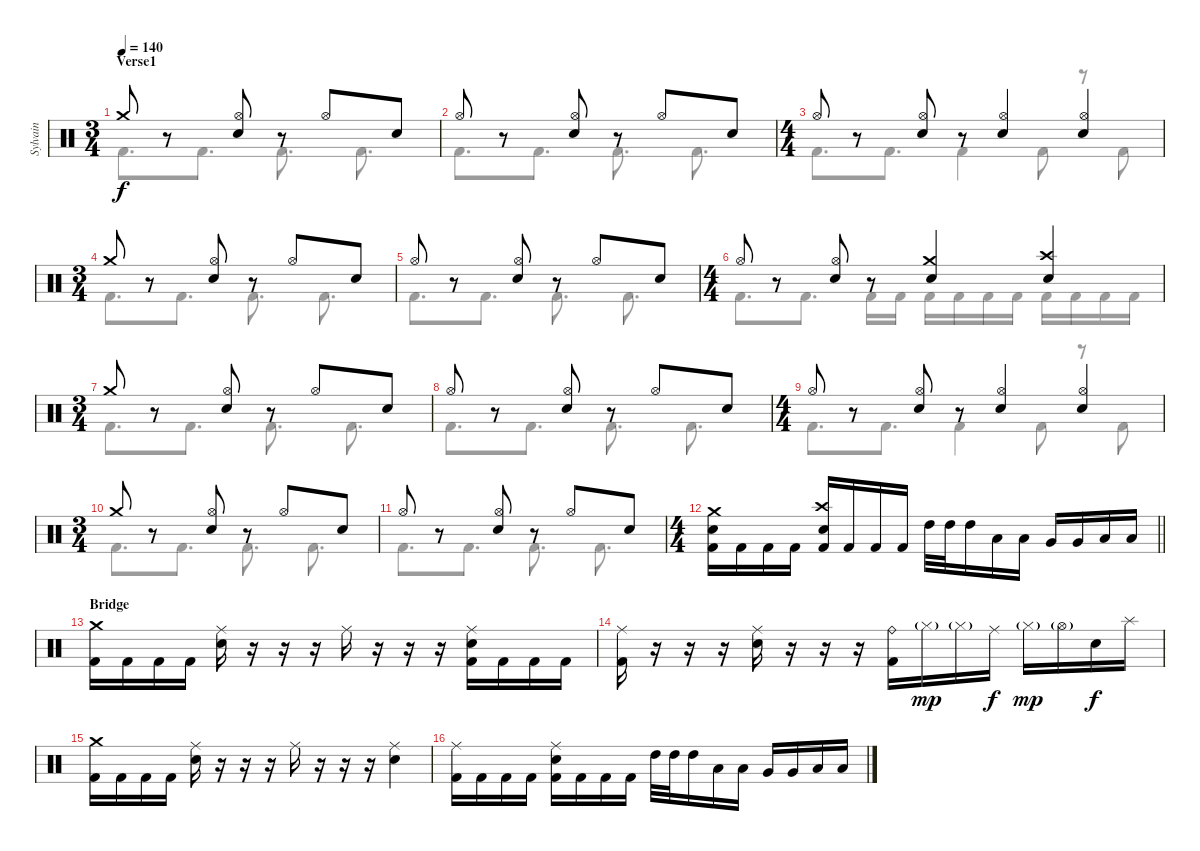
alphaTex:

\track ("Sylvain" "Sylvain") {instrument percussion}
\staff {score}
\articulation defaults
\voice
\ts (3 4)
\section ("" "Verse1")
\tempo 140
\clef neutral
\ks c "Crash medium (hit)".8{dy f}
r.8 ("Hi-Hat (open)" "Snare (hit) 2").8 r.8 "Hi-Hat (open)".8 "Snare (hit) 2".8 |
"Hi-Hat (open)".8 r.8 ("Hi-Hat (open)" "Snare (hit) 2").8 r.8 "Hi-Hat (open)".8 "Snare (hit) 2".8 |
\ts (4 4)
"Hi-Hat (open)".8 r.8 ("Hi-Hat (open)" "Snare (hit) 2").8 r.8 ("Hi-Hat (open)" "Snare (hit) 2").4 ("Hi-Hat (open)" "Snare (hit) 2").4 |
\ts (3 4)
"Crash medium (hit)".8 r.8 ("Hi-Hat (open)" "Snare (hit) 2").8 r.8 "Hi-Hat (open)".8 "Snare (hit) 2".8 |
"Hi-Hat (open)".8 r.8 ("Hi-Hat (open)" "Snare (hit) 2").8 r.8 "Hi-Hat (open)".8 "Snare (hit) 2".8 |
\ts (4 4)
"Hi-Hat (open)".8 r.8 ("Hi-Hat (open)" "Snare (hit) 2").8 r.8 ("Crash medium (hit)" "Snare (hit) 2").4 ("Crash high (hit)" "Snare (hit) 2").4 |
\ts (3 4)
"Crash medium (hit)".8 r.8 ("Hi-Hat (open)" "Snare (hit) 2").8 r.8 "Hi-Hat (open)".8 "Snare (hit) 2".8 |
"Hi-Hat (open)".8 r.8 ("Hi-Hat (open)" "Snare (hit) 2").8 r.8 "Hi-Hat (open)".8 "Snare (hit) 2".8 |
\ts (4 4)
"Hi-Hat (open)".8 r.8 ("Hi-Hat (open)" "Snare (hit) 2").8 r.8 ("Hi-Hat (open)" "Snare (hit) 2").4 ("Hi-Hat (open)" "Snare (hit) 2").4 |
\ts (3 4)
"Crash medium (hit)".8 r.8 ("Hi-Hat (open)" "Snare (hit) 2").8 r.8 "Hi-Hat (open)".8 "Snare (hit) 2".8 |
"Hi-Hat (open)".8 r.8 ("Hi-Hat (open)" "Snare (hit) 2").8 r.8 "Hi-Hat (open)".8 "Snare (hit) 2".8 |
\ts (4 4)
\barLineRight lightlight
("Crash medium (hit)" "Snare (hit) 2" "Kick (hit) 2").16 "Kick (hit) 2".16 "Kick (hit) 2".16 "Kick (hit) 2".16 ("Crash high (hit)" "Snare (hit) 2" "Kick (hit) 2").16 "Kick (hit) 2".16 "Kick (hit) 2".16 "Kick (hit) 2".16 "High Tom (hit)".32 "High Tom (hit)".32 "High Tom (hit)".16 "Low Tom (hit)".16 "Low Tom (hit)".16 "Very Low Tom (hit)".16 "Very Low Tom (hit)".16 "Low Floor Tom (hit)".16 "Low Floor Tom (hit)".16 |
\section ("" "Bridge")
("Crash medium (hit)" "Kick (hit) 2").16 "Kick (hit) 2".16 "Kick (hit) 2".16 "Kick (hit) 2".16 ("Ride (middle)" "Snare (hit) 2").16 r.16 r.16 r.16 "Ride (middle)".16 r.16 r.16 r.16 ("Ride (middle)" "Snare (hit) 2" "Kick (hit) 2").16 "Kick (hit) 2".16 "Kick (hit) 2".16 "Kick (hit) 2".16 |
("Ride (middle)" "Kick (hit) 2").16 r.16 r.16 r.16 ("Ride (middle)" "Snare (hit) 2").16 r.16 r.16 r.16 ("Ride (bell)" "Kick (hit) 2").16 "Hi-Hat (closed)"{g}.16{dy mp} "Hi-Hat (closed)"{g}.16 "Ride (middle)".16{dy f} "Hi-Hat (closed)"{g}.16{dy mp} "Hi-Hat (open)"{g}.16 "Snare (hit) 2".16{dy f} "Splash (hit)".16 |
("Crash medium (hit)" "Kick (hit) 2").16 "Kick (hit) 2".16 "Kick (hit) 2".16 "Kick (hit) 2".16 ("Ride (middle)" "Snare (hit) 2").16 r.16 r.16 r.16 "Ride (middle)".16 r.16 r.16 r.16 ("Ride (middle)" "Snare (hit) 2").4 |
("Ride (middle)" "Kick (hit) 2").16 "Kick (hit) 2".16 "Kick (hit) 2".16 "Kick (hit) 2".16 ("Ride (middle)" "Snare (hit) 2" "Kick (hit) 2").16 "Kick (hit) 2".16 "Kick (hit) 2".16 "Kick (hit) 2".16 "High Tom (hit)".32 "High Tom (hit)".32 "High Tom (hit)".16 "Low Tom (hit)".16 "Low Tom (hit)".16 "Very Low Tom (hit)".16 "Very Low Tom (hit)".16 "Low Floor Tom (hit)".16 "Low Floor Tom (hit)".16
\voice
\clef neutral
\ottava regular
\simile none
\ks c "Kick (hit) 2".8{d dy f} "Kick (hit) 2".8{d} "Kick (hit) 2".8{d} "Kick (hit) 2".8{d}
|
"Kick (hit) 2".8{d} "Kick (hit) 2".8{d} "Kick (hit) 2".8{d} "Kick (hit) 2".8{d} |
"Kick (hit) 2".8{d} "Kick (hit) 2".8{d} "Kick (hit) 2".4 "Kick (hit) 2".8 r.8 "Kick (hit) 2".8 |
"Kick (hit) 2".8{d} "Kick (hit) 2".8{d} "Kick (hit) 2".8{d} "Kick (hit) 2".8{d} |
"Kick (hit) 2".8{d} "Kick (hit) 2".8{d} "Kick (hit) 2".8{d} "Kick (hit) 2".8{d} |
"Kick (hit) 2".8{d} "Kick (hit) 2".8{d} "Kick (hit) 2".16 "Kick (hit) 2".16 "Kick (hit) 2".16 "Kick (hit) 2".16 "Kick (hit) 2".16 "Kick (hit) 2".16 "Kick (hit) 2".16 "Kick (hit) 2".16 "Kick (hit) 2".16 "Kick (hit) 2".16 |
"Kick (hit) 2".8{d} "Kick (hit) 2".8{d} "Kick (hit) 2".8{d} "Kick (hit) 2".8{d} |
"Kick (hit) 2".8{d} "Kick (hit) 2".8{d} "Kick (hit) 2".8{d} "Kick (hit) 2".8{d} |
"Kick (hit) 2".8{d} "Kick (hit) 2".8{d} "Kick (hit) 2".4 "Kick (hit) 2".8 r.8 "Kick (hit) 2".8 |
"Kick (hit) 2".8{d} "Kick (hit) 2".8{d} "Kick (hit) 2".8{d} "Kick (hit) 2".8{d} |
"Kick (hit) 2".8{d} "Kick (hit) 2".8{d} "Kick (hit) 2".8{d} "Kick (hit) 2".8{d} |
\barLineRight lightlight
|
|
|
|
